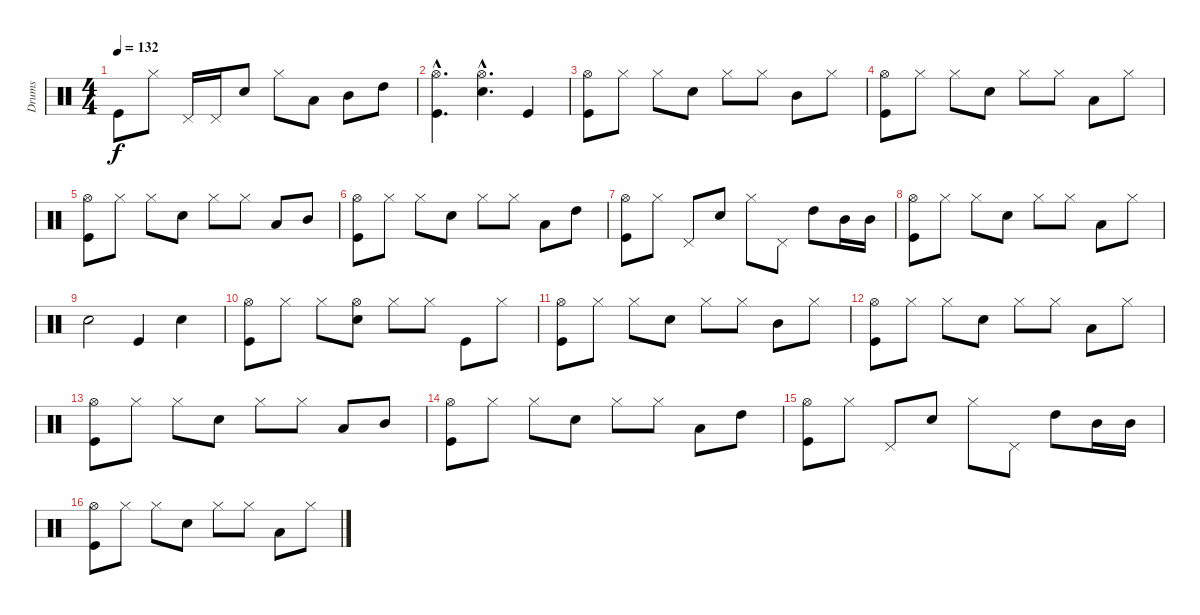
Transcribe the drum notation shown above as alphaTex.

\track ("Drums" "Drums") {instrument percussion}
\staff {score}
\articulation defaults
\ts (4 4)
\tempo 132
\clef neutral
\ks c "Kick (hit)".8{dy f} "Hi-Hat (closed)".8 "Pedal Hi-Hat (hit)".16 "Pedal Hi-Hat (hit)".16 "Snare (hit) 2".8 "Hi-Hat (closed)".8 "Low Tom (hit)".8 "Mid Tom (hit)".8 "High Tom (hit)".8
|
("Hi-Hat (open)"{hac} "Kick (hit)"{hac}).4{d} ("Hi-Hat (open)"{hac} "Snare (hit) 2"{hac}).4{d} "Kick (hit)".4 |
("Hi-Hat (open)" "Kick (hit)").8 "Hi-Hat (closed)".8 "Hi-Hat (closed)".8 "Snare (hit) 2".8 "Hi-Hat (closed)".8 "Hi-Hat (closed)".8 "Mid Tom (hit)".8 "Hi-Hat (closed)".8 |
("Hi-Hat (open)" "Kick (hit)").8 "Hi-Hat (closed)".8 "Hi-Hat (closed)".8 "Snare (hit) 2".8 "Hi-Hat (closed)".8 "Hi-Hat (closed)".8 "Low Tom (hit)".8 "Hi-Hat (closed)".8 |
("Hi-Hat (open)" "Kick (hit)").8 "Hi-Hat (closed)".8 "Hi-Hat (closed)".8 "Snare (hit) 2".8 "Hi-Hat (closed)".8 "Hi-Hat (closed)".8 "Low Tom (hit)".8 "Mid Tom (hit)".8 |
("Hi-Hat (open)" "Kick (hit)").8 "Hi-Hat (closed)".8 "Hi-Hat (closed)".8 "Snare (hit) 2".8 "Hi-Hat (closed)".8 "Hi-Hat (closed)".8 "Low Tom (hit)".8 "High Tom (hit)".8 |
("Hi-Hat (open)" "Kick (hit)").8 "Hi-Hat (closed)".8 "Pedal Hi-Hat (hit)".8 "Snare (hit) 2".8 "Hi-Hat (closed)".8 "Pedal Hi-Hat (hit)".8 "High Tom (hit)".8 "Mid Tom (hit)".16 "Mid Tom (hit)".16 |
("Hi-Hat (open)" "Kick (hit)").8 "Hi-Hat (closed)".8 "Hi-Hat (closed)".8 "Snare (hit) 2".8 "Hi-Hat (closed)".8 "Hi-Hat (closed)".8 "Low Tom (hit)".8 "Hi-Hat (closed)".8 |
"Snare (hit) 2".2 "Kick (hit)".4 "Snare (hit) 2".4 |
("Hi-Hat (open)" "Kick (hit)").8 "Hi-Hat (closed)".8 "Hi-Hat (closed)".8 ("Hi-Hat (open)" "Snare (hit) 2").8 "Hi-Hat (closed)".8 "Hi-Hat (closed)".8 "Kick (hit)".8 "Hi-Hat (closed)".8 |
("Hi-Hat (open)" "Kick (hit)").8 "Hi-Hat (closed)".8 "Hi-Hat (closed)".8 "Snare (hit) 2".8 "Hi-Hat (closed)".8 "Hi-Hat (closed)".8 "Mid Tom (hit)".8 "Hi-Hat (closed)".8 |
("Hi-Hat (open)" "Kick (hit)").8 "Hi-Hat (closed)".8 "Hi-Hat (closed)".8 "Snare (hit) 2".8 "Hi-Hat (closed)".8 "Hi-Hat (closed)".8 "Low Tom (hit)".8 "Hi-Hat (closed)".8 |
("Hi-Hat (open)" "Kick (hit)").8 "Hi-Hat (closed)".8 "Hi-Hat (closed)".8 "Snare (hit) 2".8 "Hi-Hat (closed)".8 "Hi-Hat (closed)".8 "Low Tom (hit)".8 "Mid Tom (hit)".8 |
("Hi-Hat (open)" "Kick (hit)").8 "Hi-Hat (closed)".8 "Hi-Hat (closed)".8 "Snare (hit) 2".8 "Hi-Hat (closed)".8 "Hi-Hat (closed)".8 "Low Tom (hit)".8 "High Tom (hit)".8 |
("Hi-Hat (open)" "Kick (hit)").8 "Hi-Hat (closed)".8 "Pedal Hi-Hat (hit)".8 "Snare (hit) 2".8 "Hi-Hat (closed)".8 "Pedal Hi-Hat (hit)".8 "High Tom (hit)".8 "Mid Tom (hit)".16 "Mid Tom (hit)".16 |
("Hi-Hat (open)" "Kick (hit)").8 "Hi-Hat (closed)".8 "Hi-Hat (closed)".8 "Snare (hit) 2".8 "Hi-Hat (closed)".8 "Hi-Hat (closed)".8 "Low Tom (hit)".8 "Hi-Hat (closed)".8
